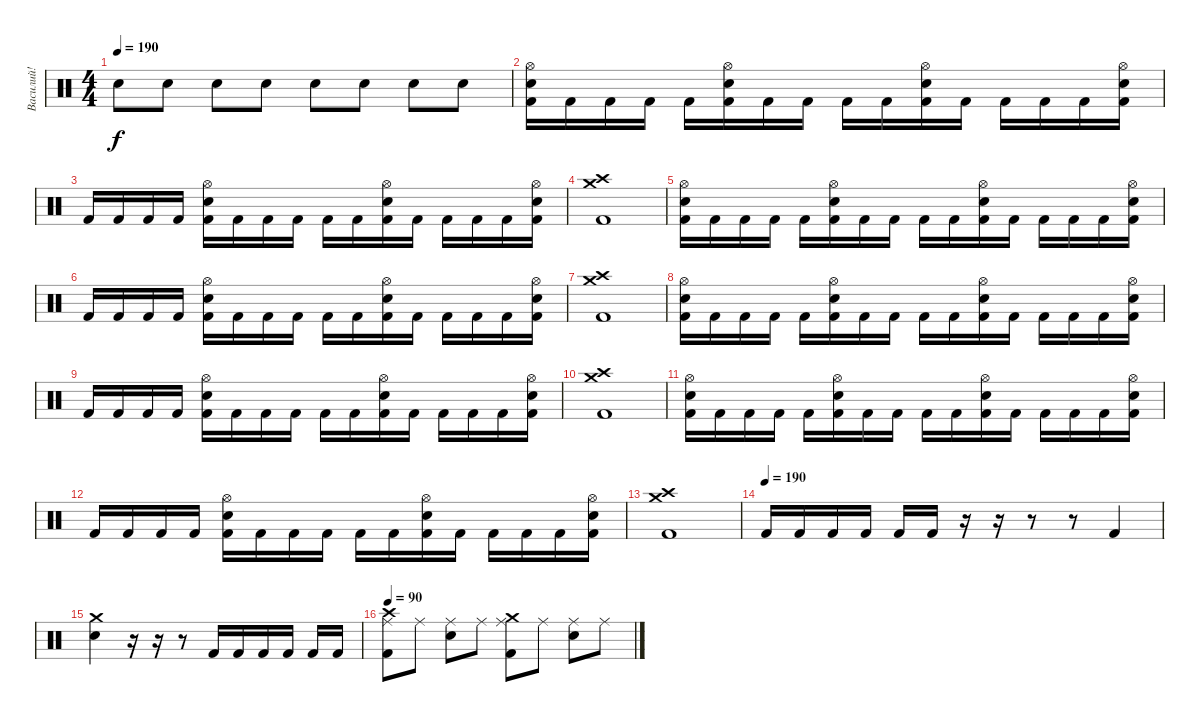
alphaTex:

\track ("Василий!" "Василий!") {instrument percussion}
\staff {score}
\articulation defaults
\ts (4 4)
\tempo 190
\clef neutral
\ks c "Electric Snare (hit)".8{dy f} "Electric Snare (hit)".8 "Electric Snare (hit)".8 "Electric Snare (hit)".8 "Electric Snare (hit)".8 "Electric Snare (hit)".8 "Electric Snare (hit)".8 "Electric Snare (hit)".8
|
("Kick (hit) 2" "Electric Snare (hit)" "Hi-Hat (open)").16 "Kick (hit) 2".16 "Kick (hit) 2".16 "Kick (hit) 2".16 "Kick (hit) 2".16 ("Kick (hit) 2" "Electric Snare (hit)" "Hi-Hat (open)").16 "Kick (hit) 2".16 "Kick (hit) 2".16 "Kick (hit) 2".16 "Kick (hit) 2".16 ("Kick (hit) 2" "Electric Snare (hit)" "Hi-Hat (open)").16 "Kick (hit) 2".16 "Kick (hit) 2".16 "Kick (hit) 2".16 "Kick (hit) 2".16 ("Kick (hit) 2" "Electric Snare (hit)" "Hi-Hat (open)").16 |
"Kick (hit) 2".16 "Kick (hit) 2".16 "Kick (hit) 2".16 "Kick (hit) 2".16 ("Kick (hit) 2" "Electric Snare (hit)" "Hi-Hat (open)").16 "Kick (hit) 2".16 "Kick (hit) 2".16 "Kick (hit) 2".16 "Kick (hit) 2".16 "Kick (hit) 2".16 ("Kick (hit) 2" "Electric Snare (hit)" "Hi-Hat (open)").16 "Kick (hit) 2".16 "Kick (hit) 2".16 "Kick (hit) 2".16 "Kick (hit) 2".16 ("Kick (hit) 2" "Electric Snare (hit)" "Hi-Hat (open)").16 |
("Kick (hit) 2" "Crash high (hit)" "Crash medium (hit)").1 |
("Kick (hit) 2" "Electric Snare (hit)" "Hi-Hat (open)").16 "Kick (hit) 2".16 "Kick (hit) 2".16 "Kick (hit) 2".16 "Kick (hit) 2".16 ("Kick (hit) 2" "Electric Snare (hit)" "Hi-Hat (open)").16 "Kick (hit) 2".16 "Kick (hit) 2".16 "Kick (hit) 2".16 "Kick (hit) 2".16 ("Kick (hit) 2" "Electric Snare (hit)" "Hi-Hat (open)").16 "Kick (hit) 2".16 "Kick (hit) 2".16 "Kick (hit) 2".16 "Kick (hit) 2".16 ("Kick (hit) 2" "Electric Snare (hit)" "Hi-Hat (open)").16 |
"Kick (hit) 2".16 "Kick (hit) 2".16 "Kick (hit) 2".16 "Kick (hit) 2".16 ("Kick (hit) 2" "Electric Snare (hit)" "Hi-Hat (open)").16 "Kick (hit) 2".16 "Kick (hit) 2".16 "Kick (hit) 2".16 "Kick (hit) 2".16 "Kick (hit) 2".16 ("Kick (hit) 2" "Electric Snare (hit)" "Hi-Hat (open)").16 "Kick (hit) 2".16 "Kick (hit) 2".16 "Kick (hit) 2".16 "Kick (hit) 2".16 ("Kick (hit) 2" "Electric Snare (hit)" "Hi-Hat (open)").16 |
("Kick (hit) 2" "Crash high (hit)" "Crash medium (hit)").1 |
("Kick (hit) 2" "Electric Snare (hit)" "Hi-Hat (open)").16 "Kick (hit) 2".16 "Kick (hit) 2".16 "Kick (hit) 2".16 "Kick (hit) 2".16 ("Kick (hit) 2" "Electric Snare (hit)" "Hi-Hat (open)").16 "Kick (hit) 2".16 "Kick (hit) 2".16 "Kick (hit) 2".16 "Kick (hit) 2".16 ("Kick (hit) 2" "Electric Snare (hit)" "Hi-Hat (open)").16 "Kick (hit) 2".16 "Kick (hit) 2".16 "Kick (hit) 2".16 "Kick (hit) 2".16 ("Kick (hit) 2" "Electric Snare (hit)" "Hi-Hat (open)").16 |
"Kick (hit) 2".16 "Kick (hit) 2".16 "Kick (hit) 2".16 "Kick (hit) 2".16 ("Kick (hit) 2" "Electric Snare (hit)" "Hi-Hat (open)").16 "Kick (hit) 2".16 "Kick (hit) 2".16 "Kick (hit) 2".16 "Kick (hit) 2".16 "Kick (hit) 2".16 ("Kick (hit) 2" "Electric Snare (hit)" "Hi-Hat (open)").16 "Kick (hit) 2".16 "Kick (hit) 2".16 "Kick (hit) 2".16 "Kick (hit) 2".16 ("Kick (hit) 2" "Electric Snare (hit)" "Hi-Hat (open)").16 |
("Kick (hit) 2" "Crash high (hit)" "Crash medium (hit)").1 |
("Kick (hit) 2" "Electric Snare (hit)" "Hi-Hat (open)").16 "Kick (hit) 2".16 "Kick (hit) 2".16 "Kick (hit) 2".16 "Kick (hit) 2".16 ("Kick (hit) 2" "Electric Snare (hit)" "Hi-Hat (open)").16 "Kick (hit) 2".16 "Kick (hit) 2".16 "Kick (hit) 2".16 "Kick (hit) 2".16 ("Kick (hit) 2" "Electric Snare (hit)" "Hi-Hat (open)").16 "Kick (hit) 2".16 "Kick (hit) 2".16 "Kick (hit) 2".16 "Kick (hit) 2".16 ("Kick (hit) 2" "Electric Snare (hit)" "Hi-Hat (open)").16 |
"Kick (hit) 2".16 "Kick (hit) 2".16 "Kick (hit) 2".16 "Kick (hit) 2".16 ("Kick (hit) 2" "Electric Snare (hit)" "Hi-Hat (open)").16 "Kick (hit) 2".16 "Kick (hit) 2".16 "Kick (hit) 2".16 "Kick (hit) 2".16 "Kick (hit) 2".16 ("Kick (hit) 2" "Electric Snare (hit)" "Hi-Hat (open)").16 "Kick (hit) 2".16 "Kick (hit) 2".16 "Kick (hit) 2".16 "Kick (hit) 2".16 ("Kick (hit) 2" "Electric Snare (hit)" "Hi-Hat (open)").16 |
("Kick (hit) 2" "Crash high (hit)" "Crash medium (hit)").1 |
\tempo (190)
"Kick (hit) 2".16 "Kick (hit) 2".16 "Kick (hit) 2".16 "Kick (hit) 2".16 "Kick (hit) 2".16 "Kick (hit) 2".16 r.16 r.16 r.8 r.8 "Kick (hit) 2".4 |
("Electric Snare (hit)" "Crash medium (hit)").4 r.16 r.16 r.8 "Kick (hit) 2".16 "Kick (hit) 2".16 "Kick (hit) 2".16 "Kick (hit) 2".16 "Kick (hit) 2".16 "Kick (hit) 2".16 |
\tempo 90
("Ride (middle)" "Kick (hit) 2" "Crash high (hit)").8 "Ride (middle)".8 ("Ride (middle)" "Electric Snare (hit)").8 "Ride (middle)".8 ("Ride (middle)" "Kick (hit) 2" "Crash medium (hit)").8 "Ride (middle)".8 ("Ride (middle)" "Electric Snare (hit)").8 "Ride (middle)".8
